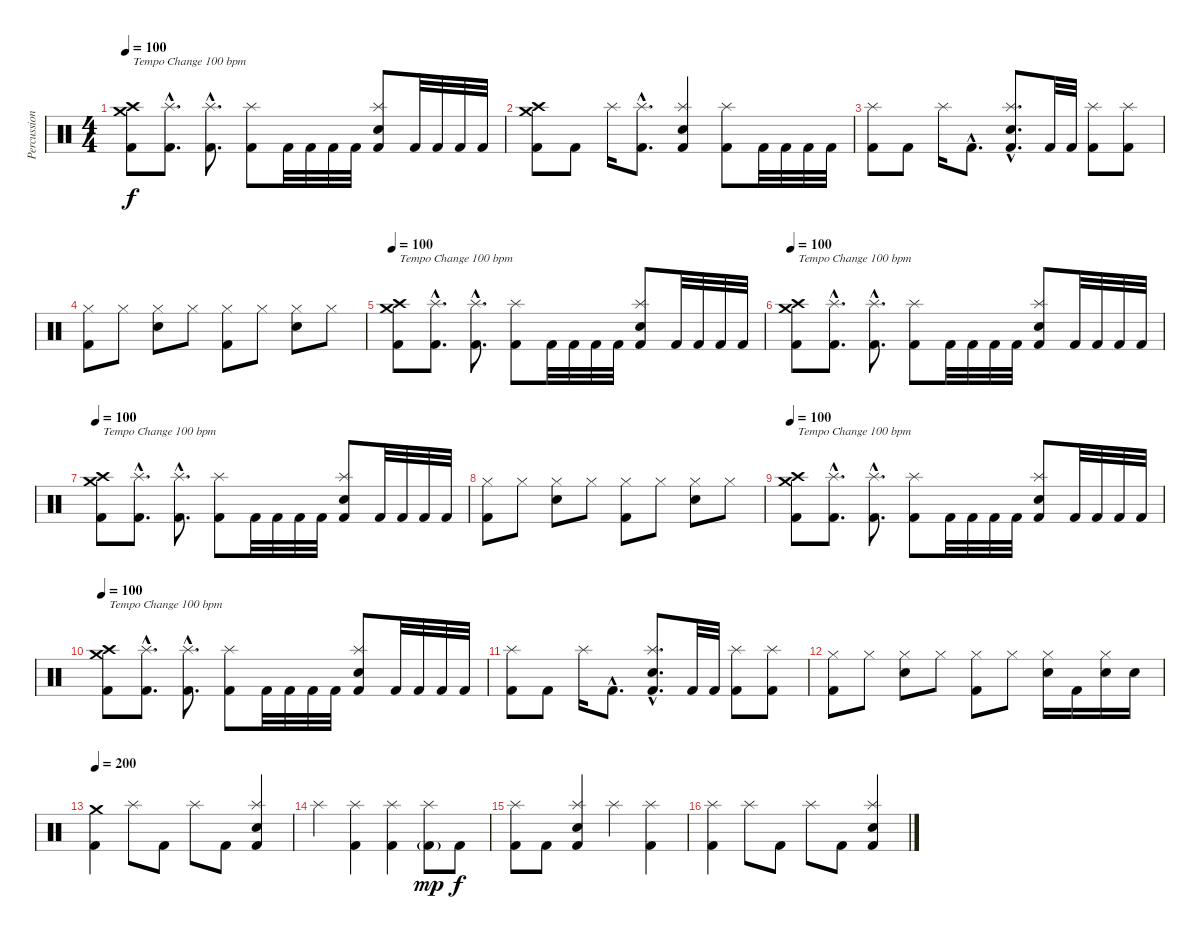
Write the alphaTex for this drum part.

\track ("Percussion" "Percussion") {instrument percussion}
\staff {score}
\articulation defaults
\ts (4 4)
\tempo 100
\clef neutral
\ks c
("Kick (hit) 2" "Crash high (hit)" "Crash medium (hit)").8{txt "Tempo Change 100 bpm" dy f} ("Kick (hit) 2"{hac} "Splash (hit)"{hac}).8{d} ("Kick (hit) 2"{hac} "Splash (hit)"{hac}).8{d} ("Kick (hit) 2" "Splash (hit)").8 "Kick (hit) 2".32 "Kick (hit) 2".32 "Kick (hit) 2".32 "Kick (hit) 2".32 ("Kick (hit) 2" "Splash (hit)" "Snare (hit) 2").8 "Kick (hit) 2".32 "Kick (hit) 2".32 "Kick (hit) 2".32 "Kick (hit) 2".32 |
("Kick (hit) 2" "Crash high (hit)" "Crash medium (hit)").8 "Kick (hit) 2".8 "Splash (hit)".16 ("Kick (hit) 2"{hac} "Splash (hit)"{hac}).8{d} ("Kick (hit) 2" "Splash (hit)" "Snare (hit) 2").4 ("Kick (hit) 2" "Splash (hit)").8 "Kick (hit) 2".32 "Kick (hit) 2".32 "Kick (hit) 2".32 "Kick (hit) 2".32 |
("Kick (hit) 2" "Splash (hit)").8 "Kick (hit) 2".8 "Splash (hit)".16 "Kick (hit) 2"{hac}.8{d} ("Kick (hit) 2"{hac} "Splash (hit)"{hac} "Snare (hit) 2"{hac}).8{d} "Kick (hit) 2".32 "Kick (hit) 2".32 ("Kick (hit) 2" "Splash (hit)").8 ("Kick (hit) 2" "Splash (hit)").8 |
("Kick (hit) 2" "Hi-Hat (closed)").8 "Hi-Hat (closed)".8 ("Hi-Hat (closed)" "Snare (hit) 2").8 "Hi-Hat (closed)".8 ("Kick (hit) 2" "Hi-Hat (closed)").8 "Hi-Hat (closed)".8 ("Hi-Hat (closed)" "Snare (hit) 2").8 "Hi-Hat (closed)".8 |
\tempo 100
("Kick (hit) 2" "Crash high (hit)" "Crash medium (hit)").8{txt "Tempo Change 100 bpm"} ("Kick (hit) 2"{hac} "Splash (hit)"{hac}).8{d} ("Kick (hit) 2"{hac} "Splash (hit)"{hac}).8{d} ("Kick (hit) 2" "Splash (hit)").8 "Kick (hit) 2".32 "Kick (hit) 2".32 "Kick (hit) 2".32 "Kick (hit) 2".32 ("Kick (hit) 2" "Splash (hit)" "Snare (hit) 2").8 "Kick (hit) 2".32 "Kick (hit) 2".32 "Kick (hit) 2".32 "Kick (hit) 2".32 |
\tempo 100
("Kick (hit) 2" "Crash high (hit)" "Crash medium (hit)").8{txt "Tempo Change 100 bpm"} ("Kick (hit) 2"{hac} "Splash (hit)"{hac}).8{d} ("Kick (hit) 2"{hac} "Splash (hit)"{hac}).8{d} ("Kick (hit) 2" "Splash (hit)").8 "Kick (hit) 2".32 "Kick (hit) 2".32 "Kick (hit) 2".32 "Kick (hit) 2".32 ("Kick (hit) 2" "Splash (hit)" "Snare (hit) 2").8 "Kick (hit) 2".32 "Kick (hit) 2".32 "Kick (hit) 2".32 "Kick (hit) 2".32 |
\tempo 100
("Kick (hit) 2" "Crash high (hit)" "Crash medium (hit)").8{txt "Tempo Change 100 bpm"} ("Kick (hit) 2"{hac} "Splash (hit)"{hac}).8{d} ("Kick (hit) 2"{hac} "Splash (hit)"{hac}).8{d} ("Kick (hit) 2" "Splash (hit)").8 "Kick (hit) 2".32 "Kick (hit) 2".32 "Kick (hit) 2".32 "Kick (hit) 2".32 ("Kick (hit) 2" "Splash (hit)" "Snare (hit) 2").8 "Kick (hit) 2".32 "Kick (hit) 2".32 "Kick (hit) 2".32 "Kick (hit) 2".32 |
("Kick (hit) 2" "Hi-Hat (closed)").8 "Hi-Hat (closed)".8 ("Hi-Hat (closed)" "Snare (hit) 2").8 "Hi-Hat (closed)".8 ("Kick (hit) 2" "Hi-Hat (closed)").8 "Hi-Hat (closed)".8 ("Hi-Hat (closed)" "Snare (hit) 2").8 "Hi-Hat (closed)".8 |
\tempo 100
("Kick (hit) 2" "Crash high (hit)" "Crash medium (hit)").8{txt "Tempo Change 100 bpm"} ("Kick (hit) 2"{hac} "Splash (hit)"{hac}).8{d} ("Kick (hit) 2"{hac} "Splash (hit)"{hac}).8{d} ("Kick (hit) 2" "Splash (hit)").8 "Kick (hit) 2".32 "Kick (hit) 2".32 "Kick (hit) 2".32 "Kick (hit) 2".32 ("Kick (hit) 2" "Splash (hit)" "Snare (hit) 2").8 "Kick (hit) 2".32 "Kick (hit) 2".32 "Kick (hit) 2".32 "Kick (hit) 2".32 |
\tempo 100
("Kick (hit) 2" "Crash high (hit)" "Crash medium (hit)").8{txt "Tempo Change 100 bpm"} ("Kick (hit) 2"{hac} "Splash (hit)"{hac}).8{d} ("Kick (hit) 2"{hac} "Splash (hit)"{hac}).8{d} ("Kick (hit) 2" "Splash (hit)").8 "Kick (hit) 2".32 "Kick (hit) 2".32 "Kick (hit) 2".32 "Kick (hit) 2".32 ("Kick (hit) 2" "Splash (hit)" "Snare (hit) 2").8 "Kick (hit) 2".32 "Kick (hit) 2".32 "Kick (hit) 2".32 "Kick (hit) 2".32 |
("Kick (hit) 2" "Splash (hit)").8 "Kick (hit) 2".8 "Splash (hit)".16 "Kick (hit) 2"{hac}.8{d} ("Kick (hit) 2"{hac} "Splash (hit)"{hac} "Snare (hit) 2"{hac}).8{d} "Kick (hit) 2".32 "Kick (hit) 2".32 ("Kick (hit) 2" "Splash (hit)").8 ("Kick (hit) 2" "Splash (hit)").8 |
("Kick (hit) 2" "Hi-Hat (closed)").8 "Hi-Hat (closed)".8 ("Hi-Hat (closed)" "Snare (hit) 2").8 "Hi-Hat (closed)".8 ("Kick (hit) 2" "Hi-Hat (closed)").8 "Hi-Hat (closed)".8 ("Hi-Hat (closed)" "Snare (hit) 2").16 "Kick (hit) 2".16 ("Hi-Hat (closed)" "Snare (hit) 2").16 "Snare (hit) 2".16 |
\tempo 200
("Kick (hit) 2" "Crash medium (hit)").4 "Splash (hit)".8 "Kick (hit) 2".8 "Splash (hit)".8 "Kick (hit) 2".8 ("Kick (hit) 2" "Splash (hit)" "Snare (hit) 2").4 |
"Splash (hit)".4 ("Kick (hit) 2" "Splash (hit)").4 ("Kick (hit) 2" "Splash (hit)").4 ("Kick (hit) 2"{g} "Splash (hit)").8{dy mp} "Kick (hit) 2".8{dy f} |
("Kick (hit) 2" "Splash (hit)").8 "Kick (hit) 2".8 ("Kick (hit) 2" "Snare (hit) 2" "Splash (hit)").4 "Splash (hit)".4 ("Kick (hit) 2" "Splash (hit)").4 |
("Kick (hit) 2" "Splash (hit)").4 "Splash (hit)".8 "Kick (hit) 2".8 "Splash (hit)".8 "Kick (hit) 2".8 ("Kick (hit) 2" "Splash (hit)" "Snare (hit) 2").4
